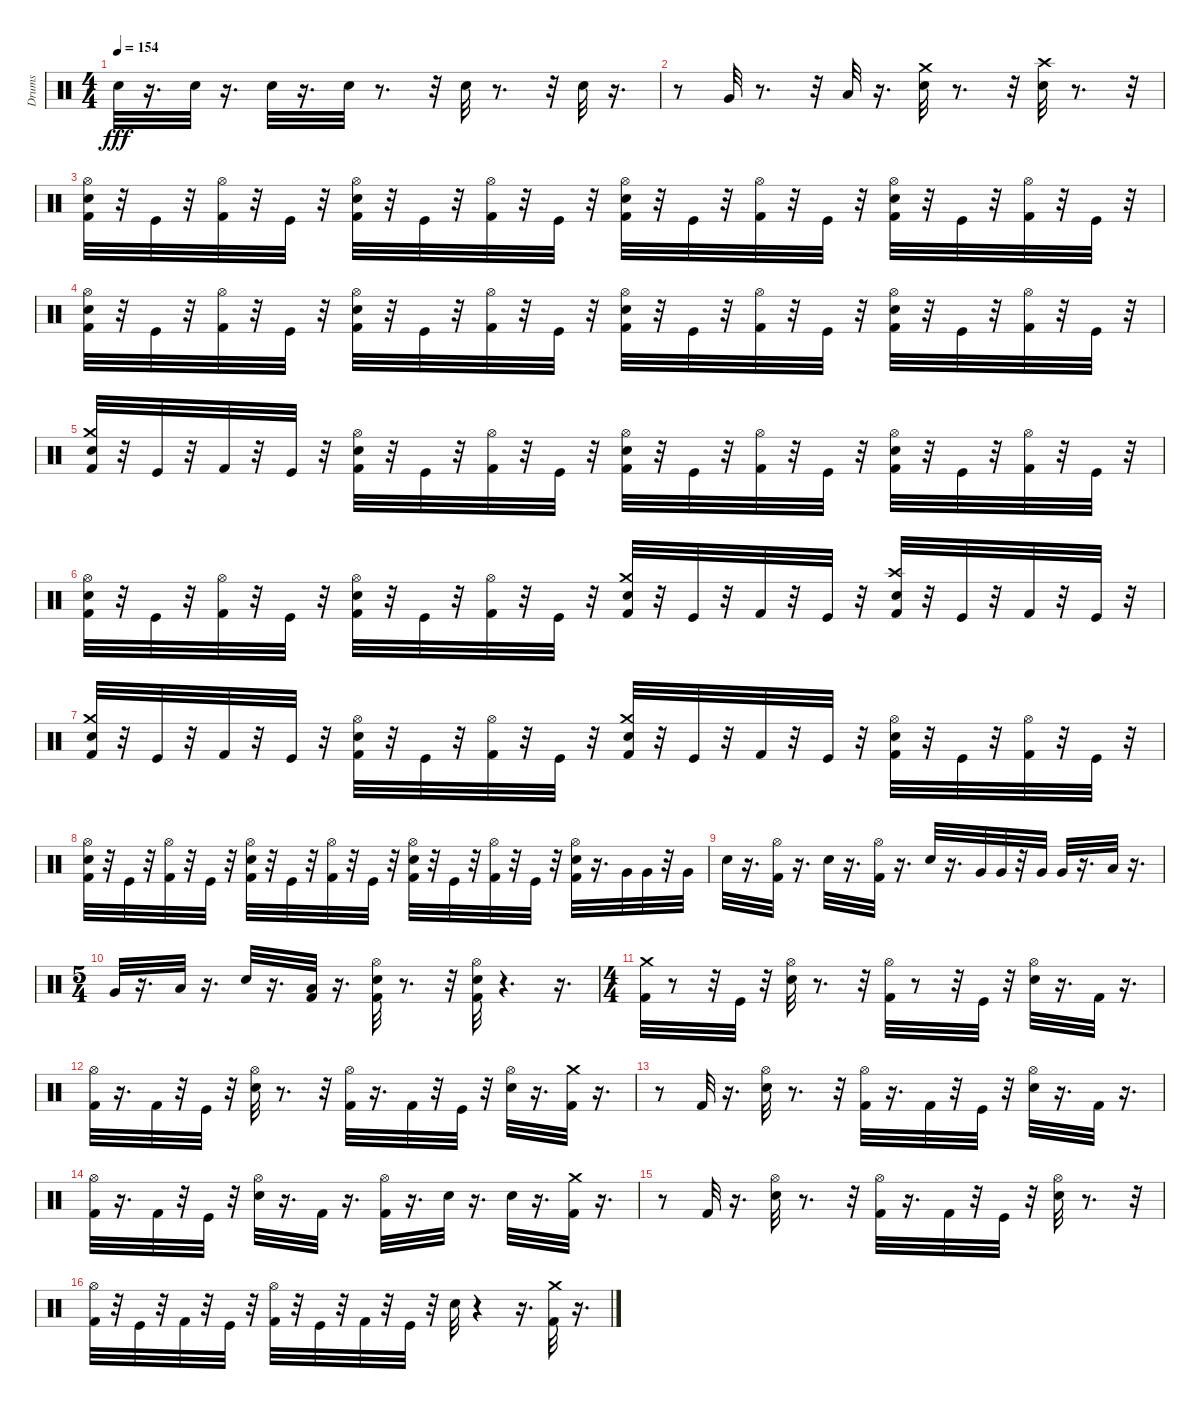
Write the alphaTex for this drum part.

\track ("Drums" "Drums") {instrument percussion}
\staff {score}
\articulation defaults
\ts (4 4)
\tempo 154
\clef neutral
\ks c "Snare (hit) 2".32{dy fff}
r.16{d} "Snare (hit) 2".32 r.16{d} "Snare (hit) 2".32 r.16{d} "Snare (hit) 2".32 r.8{d} r.32 "Snare (hit) 2".32 r.8{d} r.32 "Snare (hit) 2".32 r.16{d} |
r.8 "Very Low Tom (hit)".32 r.8{d} r.32 "Low Floor Tom (hit)".32 r.16{d} ("Crash medium (hit)" "Snare (hit) 2").32 r.8{d} r.32 ("Crash high (hit)" "Snare (hit) 2").32 r.8{d} r.32 |
("Kick (hit) 2" "Snare (hit) 2" "Hi-Hat (open)").32 r.32 "Kick (hit)".32 r.32 ("Kick (hit) 2" "Hi-Hat (open)").32 r.32 "Kick (hit)".32 r.32 ("Kick (hit) 2" "Snare (hit) 2" "Hi-Hat (open)").32 r.32 "Kick (hit)".32 r.32 ("Kick (hit) 2" "Hi-Hat (open)").32 r.32 "Kick (hit)".32 r.32 ("Kick (hit) 2" "Snare (hit) 2" "Hi-Hat (open)").32 r.32 "Kick (hit)".32 r.32 ("Kick (hit) 2" "Hi-Hat (open)").32 r.32 "Kick (hit)".32 r.32 ("Kick (hit) 2" "Snare (hit) 2" "Hi-Hat (open)").32 r.32 "Kick (hit)".32 r.32 ("Kick (hit) 2" "Hi-Hat (open)").32 r.32 "Kick (hit)".32 r.32 |
("Kick (hit) 2" "Snare (hit) 2" "Hi-Hat (open)").32 r.32 "Kick (hit)".32 r.32 ("Kick (hit) 2" "Hi-Hat (open)").32 r.32 "Kick (hit)".32 r.32 ("Kick (hit) 2" "Snare (hit) 2" "Hi-Hat (open)").32 r.32 "Kick (hit)".32 r.32 ("Kick (hit) 2" "Hi-Hat (open)").32 r.32 "Kick (hit)".32 r.32 ("Kick (hit) 2" "Snare (hit) 2" "Hi-Hat (open)").32 r.32 "Kick (hit)".32 r.32 ("Kick (hit) 2" "Hi-Hat (open)").32 r.32 "Kick (hit)".32 r.32 ("Kick (hit) 2" "Snare (hit) 2" "Hi-Hat (open)").32 r.32 "Kick (hit)".32 r.32 ("Kick (hit) 2" "Hi-Hat (open)").32 r.32 "Kick (hit)".32 r.32 |
("Kick (hit) 2" "Snare (hit) 2" "Crash medium (hit)").32 r.32 "Kick (hit)".32 r.32 "Kick (hit) 2".32 r.32 "Kick (hit)".32 r.32 ("Kick (hit) 2" "Snare (hit) 2" "Hi-Hat (open)").32 r.32 "Kick (hit)".32 r.32 ("Kick (hit) 2" "Hi-Hat (open)").32 r.32 "Kick (hit)".32 r.32 ("Kick (hit) 2" "Snare (hit) 2" "Hi-Hat (open)").32 r.32 "Kick (hit)".32 r.32 ("Kick (hit) 2" "Hi-Hat (open)").32 r.32 "Kick (hit)".32 r.32 ("Kick (hit) 2" "Snare (hit) 2" "Hi-Hat (open)").32 r.32 "Kick (hit)".32 r.32 ("Kick (hit) 2" "Hi-Hat (open)").32 r.32 "Kick (hit)".32 r.32 |
("Kick (hit) 2" "Snare (hit) 2" "Hi-Hat (open)").32 r.32 "Kick (hit)".32 r.32 ("Kick (hit) 2" "Hi-Hat (open)").32 r.32 "Kick (hit)".32 r.32 ("Kick (hit) 2" "Snare (hit) 2" "Hi-Hat (open)").32 r.32 "Kick (hit)".32 r.32 ("Kick (hit) 2" "Hi-Hat (open)").32 r.32 "Kick (hit)".32 r.32 ("Crash medium (hit)" "Kick (hit) 2" "Snare (hit) 2").32 r.32 "Kick (hit)".32 r.32 "Kick (hit) 2".32 r.32 "Kick (hit)".32 r.32 ("Crash high (hit)" "Kick (hit) 2" "Snare (hit) 2").32 r.32 "Kick (hit)".32 r.32 "Kick (hit) 2".32 r.32 "Kick (hit)".32 r.32 |
("Kick (hit) 2" "Snare (hit) 2" "Crash medium (hit)").32 r.32 "Kick (hit)".32 r.32 "Kick (hit) 2".32 r.32 "Kick (hit)".32 r.32 ("Kick (hit) 2" "Snare (hit) 2" "Hi-Hat (open)").32 r.32 "Kick (hit)".32 r.32 ("Kick (hit) 2" "Hi-Hat (open)").32 r.32 "Kick (hit)".32 r.32 ("Kick (hit) 2" "Snare (hit) 2" "Crash medium (hit)").32 r.32 "Kick (hit)".32 r.32 "Kick (hit) 2".32 r.32 "Kick (hit)".32 r.32 ("Kick (hit) 2" "Snare (hit) 2" "Hi-Hat (open)").32 r.32 "Kick (hit)".32 r.32 ("Kick (hit) 2" "Hi-Hat (open)").32 r.32 "Kick (hit)".32 r.32 |
("Kick (hit) 2" "Snare (hit) 2" "Hi-Hat (open)").32 r.32 "Kick (hit)".32 r.32 ("Kick (hit) 2" "Hi-Hat (open)").32 r.32 "Kick (hit)".32 r.32 ("Kick (hit) 2" "Snare (hit) 2" "Hi-Hat (open)").32 r.32 "Kick (hit)".32 r.32 ("Kick (hit) 2" "Hi-Hat (open)").32 r.32 "Kick (hit)".32 r.32 ("Kick (hit) 2" "Snare (hit) 2" "Hi-Hat (open)").32 r.32 "Kick (hit)".32 r.32 ("Kick (hit) 2" "Hi-Hat (open)").32 r.32 "Kick (hit)".32 r.32 ("Kick (hit) 2" "Snare (hit) 2" "Hi-Hat (open)").32 r.16{d} "Very Low Tom (hit)".32 "Very Low Tom (hit)".32 r.32 "Very Low Tom (hit)".32 |
"Snare (hit) 2".32 r.16{d} ("Kick (hit) 2" "Hi-Hat (open)").32 r.16{d} "Snare (hit) 2".32 r.16{d} ("Kick (hit) 2" "Hi-Hat (open)").32 r.16{d} "Snare (hit) 2".32 r.16{d} "Very Low Tom (hit)".32 "Very Low Tom (hit)".32 r.32 "Very Low Tom (hit)".32 "Very Low Tom (hit)".32 r.16{d} "Low Floor Tom (hit)".32 r.16{d} |
\ts (5 4)
"Very Low Tom (hit)".32 r.16{d} "Low Floor Tom (hit)".32 r.16{d} "Snare (hit) 2".32 r.16{d} ("Kick (hit) 2" "Low Floor Tom (hit)").32 r.16{d} ("Snare (hit) 2" "Kick (hit) 2" "Hi-Hat (open)").32 r.8{d} r.32 ("Snare (hit) 2" "Kick (hit) 2" "Hi-Hat (open)").32 r.4{d} r.16{d} |
\ts (4 4)
("Kick (hit) 2" "Crash medium (hit)").32 r.8 r.32 "Kick (hit)".32 r.32 ("Snare (hit) 2" "Hi-Hat (open)").32 r.8{d} r.32 ("Kick (hit) 2" "Hi-Hat (open)").32 r.8 r.32 "Kick (hit)".32 r.32 ("Snare (hit) 2" "Hi-Hat (open)").32 r.16{d} "Kick (hit) 2".32 r.16{d} |
("Kick (hit) 2" "Hi-Hat (open)").32 r.16{d} "Kick (hit) 2".32 r.32 "Kick (hit)".32 r.32 ("Snare (hit) 2" "Hi-Hat (open)").32 r.8{d} r.32 ("Kick (hit) 2" "Hi-Hat (open)").32 r.16{d} "Kick (hit) 2".32 r.32 "Kick (hit)".32 r.32 ("Snare (hit) 2" "Hi-Hat (open)").32 r.16{d} ("Kick (hit) 2" "Crash medium (hit)").32 r.16{d} |
r.8 "Kick (hit) 2".32 r.16{d} ("Snare (hit) 2" "Hi-Hat (open)").32 r.8{d} r.32 ("Kick (hit) 2" "Hi-Hat (open)").32 r.16{d} "Kick (hit) 2".32 r.32 "Kick (hit)".32 r.32 ("Snare (hit) 2" "Hi-Hat (open)").32 r.16{d} "Kick (hit) 2".32 r.16{d} |
("Kick (hit) 2" "Hi-Hat (open)").32 r.16{d} "Kick (hit) 2".32 r.32 "Kick (hit)".32 r.32 ("Snare (hit) 2" "Hi-Hat (open)").32 r.16{d} "Kick (hit) 2".32 r.16{d} ("Kick (hit) 2" "Hi-Hat (open)").32 r.16{d} "Snare (hit) 2".32 r.16{d} "Snare (hit) 2".32 r.16{d} ("Kick (hit) 2" "Crash medium (hit)").32 r.16{d} |
r.8 "Kick (hit) 2".32 r.16{d} ("Snare (hit) 2" "Hi-Hat (open)").32 r.8{d} r.32 ("Kick (hit) 2" "Hi-Hat (open)").32 r.16{d} "Kick (hit) 2".32 r.32 "Kick (hit)".32 r.32 ("Snare (hit) 2" "Hi-Hat (open)").32 r.8{d} r.32 |
("Kick (hit) 2" "Hi-Hat (open)").32 r.32 "Kick (hit)".32 r.32 "Kick (hit) 2".32 r.32 "Kick (hit)".32 r.32 ("Kick (hit) 2" "Hi-Hat (open)").32 r.32 "Kick (hit)".32 r.32 "Kick (hit) 2".32 r.32 "Kick (hit)".32 r.32 "Snare (hit) 2".32 r.4 r.16{d} ("Crash medium (hit)" "Kick (hit) 2").32 r.16{d}
